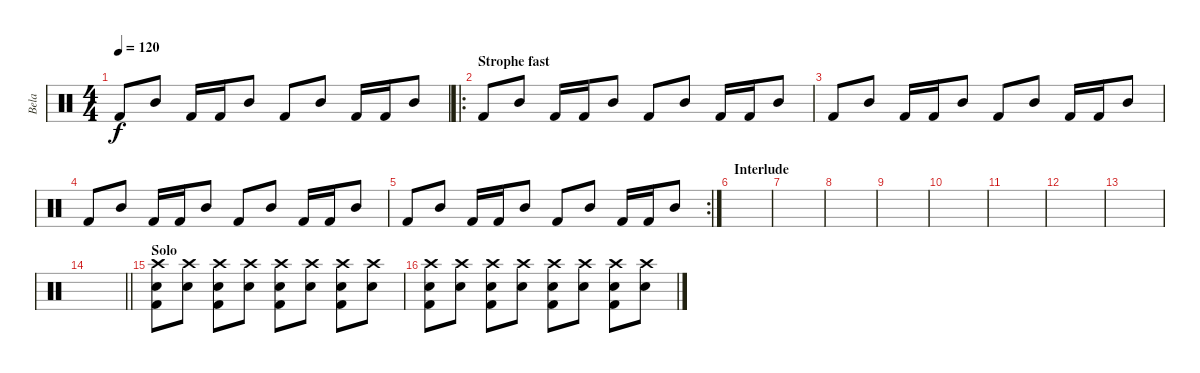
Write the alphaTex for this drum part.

\track ("Bela" "Bela") {instrument percussion}
\staff {score}
\articulation defaults
\ts (4 4)
\tempo 120
\clef neutral
\ks c "Kick (hit) 2".8{dy f} "Mid Tom (hit)".8 "Kick (hit) 2".16 "Kick (hit) 2".16 "Mid Tom (hit)".8 "Kick (hit) 2".8 "Mid Tom (hit)".8 "Kick (hit) 2".16 "Kick (hit) 2".16 "Mid Tom (hit)".8
|
\ro
\section ("" "Strophe fast")
"Kick (hit) 2".8 "Mid Tom (hit)".8 "Kick (hit) 2".16 "Kick (hit) 2".16 "Mid Tom (hit)".8 "Kick (hit) 2".8 "Mid Tom (hit)".8 "Kick (hit) 2".16 "Kick (hit) 2".16 "Mid Tom (hit)".8 |
"Kick (hit) 2".8 "Mid Tom (hit)".8 "Kick (hit) 2".16 "Kick (hit) 2".16 "Mid Tom (hit)".8 "Kick (hit) 2".8 "Mid Tom (hit)".8 "Kick (hit) 2".16 "Kick (hit) 2".16 "Mid Tom (hit)".8 |
"Kick (hit) 2".8 "Mid Tom (hit)".8 "Kick (hit) 2".16 "Kick (hit) 2".16 "Mid Tom (hit)".8 "Kick (hit) 2".8 "Mid Tom (hit)".8 "Kick (hit) 2".16 "Kick (hit) 2".16 "Mid Tom (hit)".8 |
\rc 2 "Kick (hit) 2".8 "Mid Tom (hit)".8 "Kick (hit) 2".16 "Kick (hit) 2".16 "Mid Tom (hit)".8 "Kick (hit) 2".8 "Mid Tom (hit)".8 "Kick (hit) 2".16 "Kick (hit) 2".16 "Mid Tom (hit)".8
|
\section ("" "Interlude")
|
|
|
|
|
|
|
|
\barLineRight lightlight
|
\section ("" "Solo")
("Crash high (hit)" "Electric Snare (hit)" "Kick (hit) 2").8 ("Crash high (hit)" "Electric Snare (hit)").8 ("Crash high (hit)" "Electric Snare (hit)" "Kick (hit) 2").8 ("Crash high (hit)" "Electric Snare (hit)").8 ("Crash high (hit)" "Electric Snare (hit)" "Kick (hit) 2").8 ("Crash high (hit)" "Electric Snare (hit)").8 ("Crash high (hit)" "Electric Snare (hit)" "Kick (hit) 2").8 ("Crash high (hit)" "Electric Snare (hit)").8 |
("Crash high (hit)" "Electric Snare (hit)" "Kick (hit) 2").8 ("Crash high (hit)" "Electric Snare (hit)").8 ("Crash high (hit)" "Electric Snare (hit)" "Kick (hit) 2").8 ("Crash high (hit)" "Electric Snare (hit)").8 ("Crash high (hit)" "Electric Snare (hit)" "Kick (hit) 2").8 ("Crash high (hit)" "Electric Snare (hit)").8 ("Crash high (hit)" "Electric Snare (hit)" "Kick (hit) 2").8 ("Crash high (hit)" "Electric Snare (hit)").8
